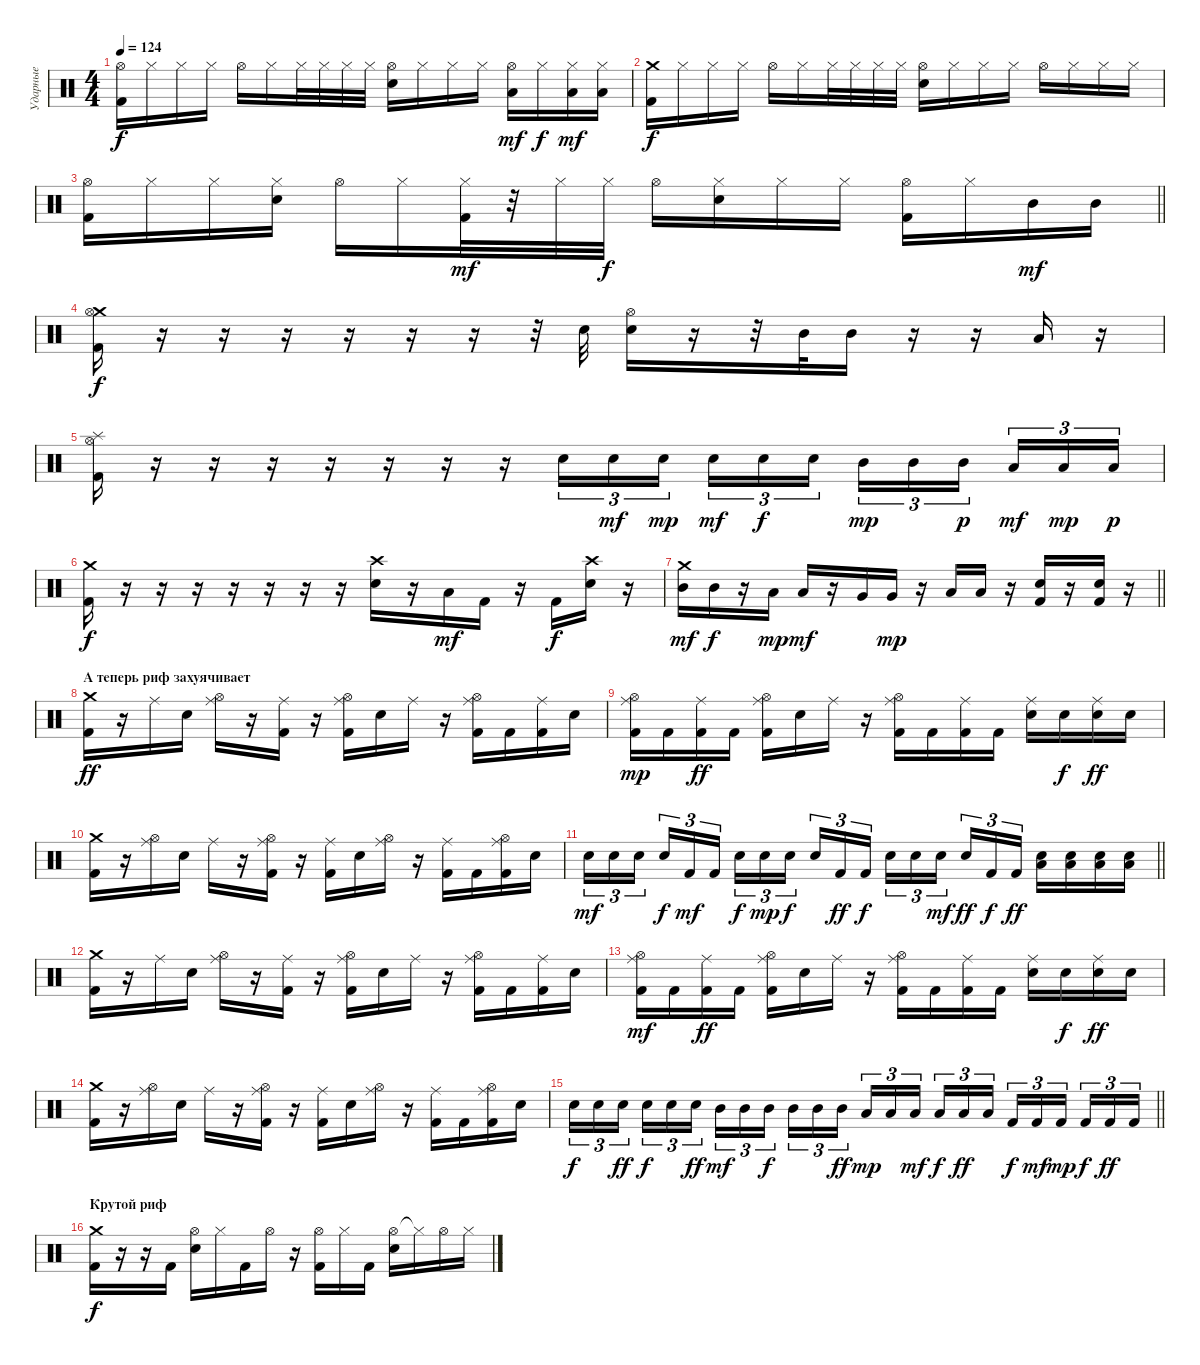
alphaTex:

\track ("Ударные" "Ударные") {instrument percussion bank 127}
\staff
\articulation defaults
\ts (4 4)
\tempo 124
\clef neutral
\ks c
("Hi-Hat (open)" "Kick (hit) 2").16{dy f} "Hi-Hat (closed)".16 "Hi-Hat (closed)".16 "Hi-Hat (closed)".16 "Hi-Hat (open)".16 "Hi-Hat (closed)".16 "Hi-Hat (closed)".32 "Hi-Hat (closed)".32 "Hi-Hat (closed)".32 "Hi-Hat (closed)".32 ("Hi-Hat (open)" "Snare (hit) 2").16 "Hi-Hat (closed)".16 "Hi-Hat (closed)".16 "Hi-Hat (closed)".16 ("Hi-Hat (open)" "Low Tom (hit)").16{dy mf} "Hi-Hat (closed)".16{dy f} ("Hi-Hat (closed)" "Low Tom (hit)").16{dy mf} ("Hi-Hat (closed)" "Low Tom (hit)").16 |
("Crash medium (hit)" "Kick (hit) 2").16{dy f} "Hi-Hat (closed)".16 "Hi-Hat (closed)".16 "Hi-Hat (closed)".16 "Hi-Hat (open)".16 "Hi-Hat (closed)".16 "Hi-Hat (closed)".32 "Hi-Hat (closed)".32 "Hi-Hat (closed)".32 "Hi-Hat (closed)".32 ("Hi-Hat (open)" "Snare (hit) 2").16 "Hi-Hat (closed)".16 "Hi-Hat (closed)".16 "Hi-Hat (closed)".16 "Hi-Hat (open)".16 "Hi-Hat (closed)".16 "Hi-Hat (closed)".16 "Hi-Hat (closed)".16 |
\barLineRight lightlight
("Hi-Hat (open)" "Kick (hit) 2").16 "Hi-Hat (closed)".16 "Hi-Hat (closed)".16 ("Hi-Hat (closed)" "Snare (hit) 2").16 "Hi-Hat (open)".16 "Hi-Hat (closed)".16 ("Hi-Hat (closed)" "Kick (hit) 2").32{dy mf} r.32 "Hi-Hat (closed)".32 "Hi-Hat (closed)".32{dy f} "Hi-Hat (open)".16 ("Hi-Hat (closed)" "Snare (hit) 2").16 "Hi-Hat (closed)".16 "Hi-Hat (closed)".16 ("Hi-Hat (open)" "Kick (hit) 2").16 "Hi-Hat (closed)".16 "Mid Tom (hit)".16{dy mf} "Mid Tom (hit)".16 |
("Crash medium (hit)" "Hi-Hat (open)" "Kick (hit) 2").16{dy f} r.16 r.16 r.16 r.16 r.16 r.16 r.32 "Snare (hit) 2".32 ("Hi-Hat (open)" "Snare (hit) 2").16 r.16 r.32 "Mid Tom (hit)".32 "Mid Tom (hit)".16 r.16 r.16 "Low Tom (hit)".16 r.16 |
("Splash (hit)" "Hi-Hat (open)" "Kick (hit) 2").16 r.16 r.16 r.16 r.16 r.16 r.16 r.16 "Snare (hit) 2".16{tu (3 2)} "Snare (hit) 2".16{tu (3 2) dy mf} "Snare (hit) 2".16{tu (3 2) dy mp beam splitsecondary} "Snare (hit) 2".16{tu (3 2) dy mf} "Snare (hit) 2".16{tu (3 2) dy f} "Snare (hit) 2".16{tu (3 2)} "Mid Tom (hit)".16{tu (3 2) dy mp} "Mid Tom (hit)".16{tu (3 2)} "Mid Tom (hit)".16{tu (3 2) dy p beam splitsecondary} "Low Tom (hit)".16{tu (3 2) dy mf} "Low Tom (hit)".16{tu (3 2) dy mp} "Low Tom (hit)".16{tu (3 2) dy p} |
("Crash medium (hit)" "Kick (hit) 2").16{dy f} r.16 r.16 r.16 r.16 r.16 r.16 r.16 ("Crash high (hit)" "Snare (hit) 2").16 r.16 "Low Tom (hit)".16{dy mf} "Kick (hit) 2".16 r.16 "Kick (hit) 2".16{dy f} ("Crash high (hit)" "Snare (hit) 2").16 r.16 |
\barLineRight lightlight
("Crash medium (hit)" "Mid Tom (hit)").16{dy mf} "Mid Tom (hit)".16{dy f} r.16 "Low Tom (hit)".16{dy mp} "Low Tom (hit)".16{dy mf} r.16 "Very Low Tom (hit)".16 "Very Low Tom (hit)".16{dy mp} r.16 "Low Floor Tom (hit)".16 "Low Floor Tom (hit)".16 r.16 ("Metronome (bell)" "Kick (hit) 2").16 r.16 ("Metronome (bell)" "Kick (hit) 2").16 r.16 |
\section ("" "А теперь риф захуячивает")
("Crash medium (hit)" "Kick (hit) 2").16{dy ff} r.16 "Ride (middle)".16 "Snare (hit) 2".16 ("Hi-Hat (open)" "Ride (middle)").16 r.16 ("Ride (middle)" "Kick (hit) 2").16 r.16 ("Hi-Hat (open)" "Ride (middle)" "Kick (hit) 2").16 "Snare (hit) 2".16 "Ride (middle)".16 r.16 ("Hi-Hat (open)" "Ride (middle)" "Kick (hit) 2").16 "Kick (hit) 2".16 ("Kick (hit) 2" "Ride (middle)").16 "Snare (hit) 2".16 |
("Hi-Hat (open)" "Ride (middle)" "Kick (hit) 2").16{dy mp} "Kick (hit) 2".16 ("Ride (middle)" "Kick (hit) 2").16{dy ff} "Kick (hit) 2".16 ("Hi-Hat (open)" "Ride (middle)" "Kick (hit) 2").16 "Snare (hit) 2".16 "Ride (middle)".16 r.16 ("Hi-Hat (open)" "Kick (hit) 2" "Ride (middle)").16 "Kick (hit) 2".16 ("Kick (hit) 2" "Ride (middle)").16 "Kick (hit) 2".16 ("Snare (hit) 2" "Ride (middle)").16 "Snare (hit) 2".16{dy f} ("Snare (hit) 2" "Ride (middle)").16{dy ff} "Snare (hit) 2".16 |
("Crash medium (hit)" "Kick (hit) 2").16 r.16 ("Hi-Hat (open)" "Ride (middle)").16 "Snare (hit) 2".16 "Ride (middle)".16 r.16 ("Hi-Hat (open)" "Ride (middle)" "Kick (hit) 2").16 r.16 ("Ride (middle)" "Kick (hit) 2").16 "Snare (hit) 2".16 ("Hi-Hat (open)" "Ride (middle)").16 r.16 ("Ride (middle)" "Kick (hit) 2").16 "Kick (hit) 2".16 ("Hi-Hat (open)" "Kick (hit) 2" "Ride (middle)").16 "Snare (hit) 2".16 |
\barLineRight lightlight "Snare (hit) 2".16{tu (3 2) dy mf} "Snare (hit) 2".16{tu (3 2)} "Snare (hit) 2".16{tu (3 2) beam splitsecondary} "Snare (hit) 2".16{tu (3 2) dy f} "Kick (hit) 2".16{tu (3 2) dy mf} "Kick (hit) 2".16{tu (3 2)} "Snare (hit) 2".16{tu (3 2) dy f} "Snare (hit) 2".16{tu (3 2) dy mp} "Snare (hit) 2".16{tu (3 2) dy f beam splitsecondary} "Snare (hit) 2".16{tu (3 2)} "Kick (hit) 2".16{tu (3 2) dy ff} "Kick (hit) 2".16{tu (3 2) dy f} "Snare (hit) 2".16{tu (3 2)} "Snare (hit) 2".16{tu (3 2)} "Snare (hit) 2".16{tu (3 2) dy mf beam splitsecondary} "Snare (hit) 2".16{tu (3 2) dy ff} "Kick (hit) 2".16{tu (3 2) dy f} "Kick (hit) 2".16{tu (3 2) dy ff}
("Low Tom (hit)" "Snare (hit) 2").16 ("Low Tom (hit)" "Snare (hit) 2").16 ("Low Tom (hit)" "Snare (hit) 2").16 ("Low Tom (hit)" "Snare (hit) 2").16 |
("Crash medium (hit)" "Kick (hit) 2").16 r.16 "Ride (middle)".16 "Snare (hit) 2".16 ("Hi-Hat (open)" "Ride (middle)").16 r.16 ("Ride (middle)" "Kick (hit) 2").16 r.16 ("Hi-Hat (open)" "Ride (middle)" "Kick (hit) 2").16 "Snare (hit) 2".16 "Ride (middle)".16 r.16 ("Hi-Hat (open)" "Ride (middle)" "Kick (hit) 2").16 "Kick (hit) 2".16 ("Kick (hit) 2" "Ride (middle)").16 "Snare (hit) 2".16 |
("Hi-Hat (open)" "Ride (middle)" "Kick (hit) 2").16{dy mf} "Kick (hit) 2".16 ("Ride (middle)" "Kick (hit) 2").16{dy ff} "Kick (hit) 2".16 ("Hi-Hat (open)" "Ride (middle)" "Kick (hit) 2").16 "Snare (hit) 2".16 "Ride (middle)".16 r.16 ("Hi-Hat (open)" "Kick (hit) 2" "Ride (middle)").16 "Kick (hit) 2".16 ("Kick (hit) 2" "Ride (middle)").16 "Kick (hit) 2".16 ("Snare (hit) 2" "Ride (middle)").16 "Snare (hit) 2".16{dy f} ("Snare (hit) 2" "Ride (middle)").16{dy ff} "Snare (hit) 2".16 |
("Crash medium (hit)" "Kick (hit) 2").16 r.16 ("Hi-Hat (open)" "Ride (middle)").16 "Snare (hit) 2".16 "Ride (middle)".16 r.16 ("Hi-Hat (open)" "Ride (middle)" "Kick (hit) 2").16 r.16 ("Ride (middle)" "Kick (hit) 2").16 "Snare (hit) 2".16 ("Hi-Hat (open)" "Ride (middle)").16 r.16 ("Ride (middle)" "Kick (hit) 2").16 "Kick (hit) 2".16 ("Hi-Hat (open)" "Kick (hit) 2" "Ride (middle)").16 "Snare (hit) 2".16 |
\barLineRight lightlight "Snare (hit) 2".16{tu (3 2) dy f} "Snare (hit) 2".16{tu (3 2)} "Snare (hit) 2".16{tu (3 2) dy ff beam splitsecondary} "Snare (hit) 2".16{tu (3 2) dy f} "Snare (hit) 2".16{tu (3 2)} "Snare (hit) 2".16{tu (3 2) dy ff} "Mid Tom (hit)".16{tu (3 2) dy mf} "Mid Tom (hit)".16{tu (3 2)} "Mid Tom (hit)".16{tu (3 2) dy f beam splitsecondary} "Mid Tom (hit)".16{tu (3 2)} "Mid Tom (hit)".16{tu (3 2)} "Mid Tom (hit)".16{tu (3 2) dy ff} "Low Tom (hit)".16{tu (3 2) dy mp} "Low Tom (hit)".16{tu (3 2)} "Low Tom (hit)".16{tu (3 2) dy mf beam splitsecondary} "Low Tom (hit)".16{tu (3 2) dy f} "Low Tom (hit)".16{tu (3 2) dy ff} "Low Tom (hit)".16{tu (3 2)} "Kick (hit) 2".16{tu (3 2) dy f} "Kick (hit) 2".16{tu (3 2) dy mf} "Kick (hit) 2".16{tu (3 2) dy mp beam splitsecondary} "Kick (hit) 2".16{tu (3 2) dy f} "Kick (hit) 2".16{tu (3 2) dy ff} "Kick (hit) 2".16{tu (3 2)}
|
\section ("" "Крутой риф")
("Crash medium (hit)" "Kick (hit) 2").16{dy f} r.16 r.16 "Kick (hit) 2".16 ("Hi-Hat (open)" "Snare (hit) 2").16 "Hi-Hat (closed)".16 "Kick (hit) 2".16 "Hi-Hat (open)".16 r.16 ("Hi-Hat (open)" "Kick (hit) 2").16 "Hi-Hat (closed)".16 "Kick (hit) 2".16 ("Hi-Hat (open)" "Snare (hit) 2").16 "Hi-Hat (closed)"{t}.16 "Hi-Hat (open)".16 "Hi-Hat (closed)".16
